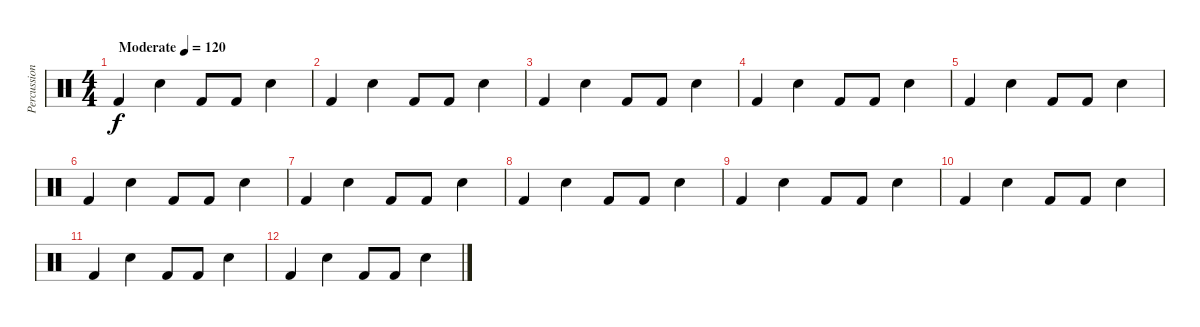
\track ("Percussion" "Percussion") {instrument percussion}
\staff {score}
\articulation defaults
\ts (4 4)
\tempo (120 "Moderate")
\clef neutral
\ks c "Kick (hit) 2".4{dy f} "Snare (hit) 2".4 "Kick (hit) 2".8 "Kick (hit) 2".8 "Snare (hit) 2".4
|
"Kick (hit) 2".4 "Snare (hit) 2".4 "Kick (hit) 2".8 "Kick (hit) 2".8 "Snare (hit) 2".4 |
"Kick (hit) 2".4 "Snare (hit) 2".4 "Kick (hit) 2".8 "Kick (hit) 2".8 "Snare (hit) 2".4 |
"Kick (hit) 2".4 "Snare (hit) 2".4 "Kick (hit) 2".8 "Kick (hit) 2".8 "Snare (hit) 2".4 |
"Kick (hit) 2".4 "Snare (hit) 2".4 "Kick (hit) 2".8 "Kick (hit) 2".8 "Snare (hit) 2".4 |
"Kick (hit) 2".4 "Snare (hit) 2".4 "Kick (hit) 2".8 "Kick (hit) 2".8 "Snare (hit) 2".4 |
"Kick (hit) 2".4 "Snare (hit) 2".4 "Kick (hit) 2".8 "Kick (hit) 2".8 "Snare (hit) 2".4 |
"Kick (hit) 2".4 "Snare (hit) 2".4 "Kick (hit) 2".8 "Kick (hit) 2".8 "Snare (hit) 2".4 |
"Kick (hit) 2".4 "Snare (hit) 2".4 "Kick (hit) 2".8 "Kick (hit) 2".8 "Snare (hit) 2".4 |
"Kick (hit) 2".4 "Snare (hit) 2".4 "Kick (hit) 2".8 "Kick (hit) 2".8 "Snare (hit) 2".4 |
"Kick (hit) 2".4 "Snare (hit) 2".4 "Kick (hit) 2".8 "Kick (hit) 2".8 "Snare (hit) 2".4 |
"Kick (hit) 2".4 "Snare (hit) 2".4 "Kick (hit) 2".8 "Kick (hit) 2".8 "Snare (hit) 2".4
